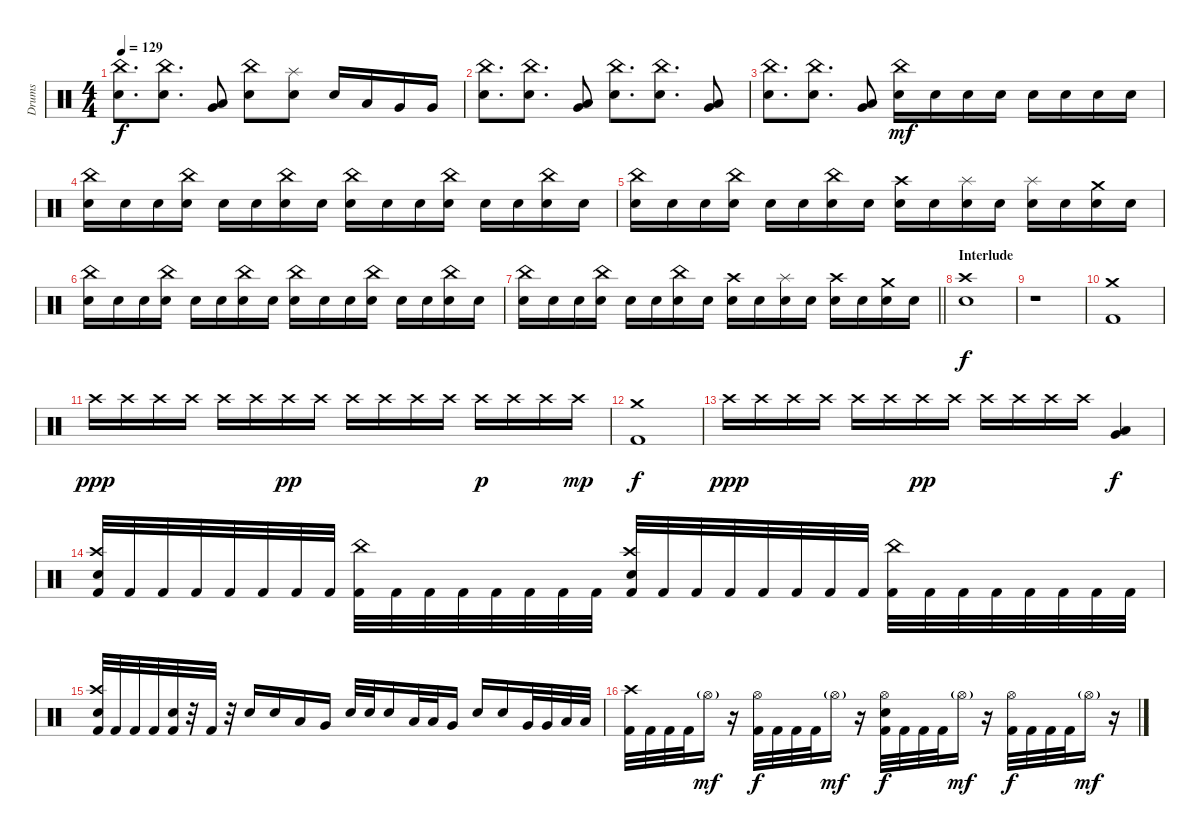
\track ("Drums" "Drums") {instrument percussion}
\staff {score}
\articulation defaults
\ts (4 4)
\tempo 129
\clef neutral
\ks c
("China (hit)" "Snare (hit) 2").8{d dy f} ("China (hit)" "Snare (hit) 2").8{d} ("Very Low Tom (hit)" "Low Floor Tom (hit)").8 ("China (hit)" "Snare (hit) 2").8 ("Splash (hit)" "Snare (hit) 2").8 "Snare (hit) 2".16 "Low Tom (hit)".16 "Very Low Tom (hit)".16 "Very Low Tom (hit)".16 |
("China (hit)" "Snare (hit) 2").8{d} ("China (hit)" "Snare (hit) 2").8{d} ("Very Low Tom (hit)" "Low Floor Tom (hit)").8 ("China (hit)" "Snare (hit) 2").8{d} ("China (hit)" "Snare (hit) 2").8{d} ("Very Low Tom (hit)" "Low Floor Tom (hit)").8 |
("China (hit)" "Snare (hit) 2").8{d} ("China (hit)" "Snare (hit) 2").8{d} ("Very Low Tom (hit)" "Low Floor Tom (hit)").8 ("China (hit)" "Snare (hit) 2").16{dy mf} "Snare (hit) 2".16 "Snare (hit) 2".16 "Snare (hit) 2".16 "Snare (hit) 2".16 "Snare (hit) 2".16 "Snare (hit) 2".16 "Snare (hit) 2".16 |
("China (hit)" "Snare (hit) 2").16 "Snare (hit) 2".16 "Snare (hit) 2".16 ("China (hit)" "Snare (hit) 2").16 "Snare (hit) 2".16 "Snare (hit) 2".16 ("China (hit)" "Snare (hit) 2").16 "Snare (hit) 2".16 ("China (hit)" "Snare (hit) 2").16 "Snare (hit) 2".16 "Snare (hit) 2".16 ("China (hit)" "Snare (hit) 2").16 "Snare (hit) 2".16 "Snare (hit) 2".16 ("China (hit)" "Snare (hit) 2").16 "Snare (hit) 2".16 |
("China (hit)" "Snare (hit) 2").16 "Snare (hit) 2".16 "Snare (hit) 2".16 ("China (hit)" "Snare (hit) 2").16 "Snare (hit) 2".16 "Snare (hit) 2".16 ("China (hit)" "Snare (hit) 2").16 "Snare (hit) 2".16 ("Crash high (hit)" "Snare (hit) 2").16 "Snare (hit) 2".16 ("Splash (hit)" "Snare (hit) 2").16 "Snare (hit) 2".16 ("Splash (hit)" "Snare (hit) 2").16 "Snare (hit) 2".16 ("Crash medium (hit)" "Snare (hit) 2").16 "Snare (hit) 2".16 |
("China (hit)" "Snare (hit) 2").16 "Snare (hit) 2".16 "Snare (hit) 2".16 ("China (hit)" "Snare (hit) 2").16 "Snare (hit) 2".16 "Snare (hit) 2".16 ("China (hit)" "Snare (hit) 2").16 "Snare (hit) 2".16 ("China (hit)" "Snare (hit) 2").16 "Snare (hit) 2".16 "Snare (hit) 2".16 ("China (hit)" "Snare (hit) 2").16 "Snare (hit) 2".16 "Snare (hit) 2".16 ("China (hit)" "Snare (hit) 2").16 "Snare (hit) 2".16 |
\barLineRight lightlight
("China (hit)" "Snare (hit) 2").16 "Snare (hit) 2".16 "Snare (hit) 2".16 ("China (hit)" "Snare (hit) 2").16 "Snare (hit) 2".16 "Snare (hit) 2".16 ("China (hit)" "Snare (hit) 2").16 "Snare (hit) 2".16 ("Crash high (hit)" "Snare (hit) 2").16 "Snare (hit) 2".16 ("Splash (hit)" "Snare (hit) 2").16 "Snare (hit) 2".16 ("Crash high (hit)" "Snare (hit) 2").16 "Snare (hit) 2".16 ("Crash medium (hit)" "Snare (hit) 2").16 "Snare (hit) 2".16 |
\section ("" "Interlude ")
("Crash high (hit)" "Snare (hit) 2").1{dy f} |
r.1 |
("Crash medium (hit)" "Kick (hit) 2").1 |
"Crash high (hit)".16{dy ppp} "Crash high (hit)".16 "Crash high (hit)".16 "Crash high (hit)".16 "Crash high (hit)".16 "Crash high (hit)".16 "Crash high (hit)".16{dy pp} "Crash high (hit)".16 "Crash high (hit)".16 "Crash high (hit)".16 "Crash high (hit)".16 "Crash high (hit)".16 "Crash high (hit)".16{dy p} "Crash high (hit)".16 "Crash high (hit)".16 "Crash high (hit)".16{dy mp} |
("Crash medium (hit)" "Kick (hit) 2").1{dy f} |
"Crash high (hit)".16{dy ppp} "Crash high (hit)".16 "Crash high (hit)".16 "Crash high (hit)".16 "Crash high (hit)".16 "Crash high (hit)".16 "Crash high (hit)".16{dy pp} "Crash high (hit)".16 "Crash high (hit)".16 "Crash high (hit)".16 "Crash high (hit)".16 "Crash high (hit)".16 ("Very Low Tom (hit)" "Low Floor Tom (hit)").4{dy f} |
("Crash high (hit)" "Snare (hit) 2" "Kick (hit) 2").32 "Kick (hit) 2".32 "Kick (hit) 2".32 "Kick (hit) 2".32 "Kick (hit) 2".32 "Kick (hit) 2".32 "Kick (hit) 2".32 "Kick (hit) 2".32 ("China (hit)" "Kick (hit) 2").32 "Kick (hit) 2".32 "Kick (hit) 2".32 "Kick (hit) 2".32 "Kick (hit) 2".32 "Kick (hit) 2".32 "Kick (hit) 2".32 "Kick (hit) 2".32 ("Crash high (hit)" "Snare (hit) 2" "Kick (hit) 2").32 "Kick (hit) 2".32 "Kick (hit) 2".32 "Kick (hit) 2".32 "Kick (hit) 2".32 "Kick (hit) 2".32 "Kick (hit) 2".32 "Kick (hit) 2".32 ("China (hit)" "Kick (hit) 2").32 "Kick (hit) 2".32 "Kick (hit) 2".32 "Kick (hit) 2".32 "Kick (hit) 2".32 "Kick (hit) 2".32 "Kick (hit) 2".32 "Kick (hit) 2".32 |
("Crash high (hit)" "Snare (hit) 2" "Kick (hit) 2").32 "Kick (hit) 2".32 "Kick (hit) 2".32 "Kick (hit) 2".32 ("Snare (hit) 2" "Kick (hit) 2").32 r.32 "Kick (hit) 2".32 r.32 "Snare (hit) 2".16 "Snare (hit) 2".16 "Low Tom (hit)".16 "Very Low Tom (hit)".16 "Snare (hit) 2".32 "Snare (hit) 2".32 "Snare (hit) 2".16 "Low Tom (hit)".32 "Low Tom (hit)".32 "Very Low Tom (hit)".16 "Snare (hit) 2".16 "Snare (hit) 2".16 "Very Low Tom (hit)".32 "Very Low Tom (hit)".32 "Low Floor Tom (hit)".32 "Low Floor Tom (hit)".32 |
("Crash high (hit)" "Kick (hit) 2").32 "Kick (hit) 2".32 "Kick (hit) 2".32 "Kick (hit) 2".32 "Hi-Hat (open)"{g}.16{dy mf} r.16 ("Hi-Hat (open)" "Kick (hit) 2").32{dy f} "Kick (hit) 2".32 "Kick (hit) 2".32 "Kick (hit) 2".32 "Hi-Hat (open)"{g}.16{dy mf} r.16 ("Hi-Hat (open)" "Snare (hit) 2" "Kick (hit) 2").32{dy f} "Kick (hit) 2".32 "Kick (hit) 2".32 "Kick (hit) 2".32 "Hi-Hat (open)"{g}.16{dy mf} r.16 ("Hi-Hat (open)" "Kick (hit) 2").32{dy f} "Kick (hit) 2".32 "Kick (hit) 2".32 "Kick (hit) 2".32 "Hi-Hat (open)"{g}.16{dy mf} r.16
